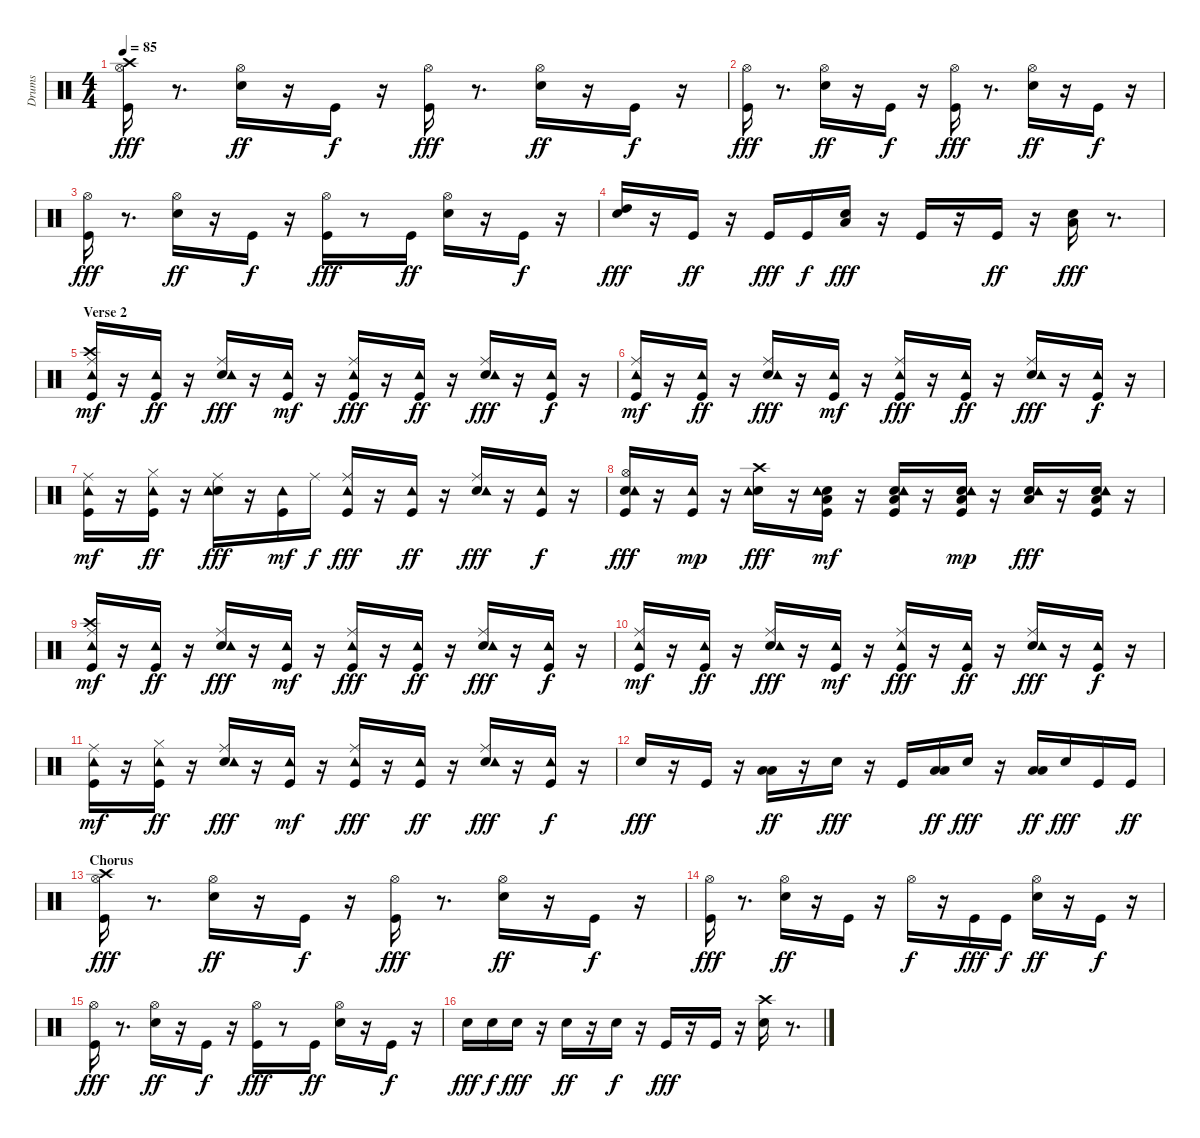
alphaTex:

\track ("Drums    " "Drums    ") {instrument percussion}
\staff {score}
\articulation defaults
\ts (4 4)
\tempo 85
\clef neutral
\ks c
("Kick (hit)" "Hi-Hat (open)" "Crash high (hit)").16{dy fff} r.8{d} ("Snare (hit) 2" "Hi-Hat (open)").16{dy ff} r.16 "Kick (hit)".16{dy f} r.16 ("Kick (hit)" "Hi-Hat (open)").16{dy fff} r.8{d} ("Snare (hit) 2" "Hi-Hat (open)").16{dy ff} r.16 "Kick (hit)".16{dy f} r.16 |
("Kick (hit)" "Hi-Hat (open)").16{dy fff} r.8{d} ("Snare (hit) 2" "Hi-Hat (open)").16{dy ff} r.16 "Kick (hit)".16{dy f} r.16 ("Kick (hit)" "Hi-Hat (open)").16{dy fff} r.8{d} ("Snare (hit) 2" "Hi-Hat (open)").16{dy ff} r.16 "Kick (hit)".16{dy f} r.16 |
("Kick (hit)" "Hi-Hat (open)").16{dy fff} r.8{d} ("Snare (hit) 2" "Hi-Hat (open)").16{dy ff} r.16 "Kick (hit)".16{dy f} r.16 ("Kick (hit)" "Hi-Hat (open)").16{dy fff} r.8 "Kick (hit)".16{dy ff} ("Snare (hit) 2" "Hi-Hat (open)").16 r.16 "Kick (hit)".16{dy f} r.16 |
("Snare (hit) 2" "High Tom (hit)").16{dy fff} r.16 "Kick (hit)".16{dy ff} r.16 "Kick (hit)".16{dy fff} "Kick (hit)".16{dy f} ("Snare (hit) 2" "Low Tom (hit)").16{dy fff} r.16 "Kick (hit)".16 r.16 "Kick (hit)".16{dy ff} r.16 ("Snare (hit) 2" "Low Floor Tom (hit)").16{dy fff} r.8{d} |
\section ("" "Verse 2")
("Kick (hit)" "Ride (middle)" "Crash high (hit)" "Tambourine (hit)").16{dy mf} r.16 ("Kick (hit)" "Tambourine (hit)").16{dy ff} r.16 ("Snare (hit) 2" "Ride (middle)" "Tambourine (hit)").16{dy fff} r.16 ("Kick (hit)" "Tambourine (hit)").16{dy mf} r.16 ("Kick (hit)" "Ride (middle)" "Tambourine (hit)").16{dy fff} r.16 ("Kick (hit)" "Tambourine (hit)").16{dy ff} r.16 ("Snare (hit) 2" "Ride (middle)" "Tambourine (hit)").16{dy fff} r.16 ("Kick (hit)" "Tambourine (hit)").16{dy f} r.16 |
("Kick (hit)" "Ride (middle)" "Tambourine (hit)").16{dy mf} r.16 ("Kick (hit)" "Tambourine (hit)").16{dy ff} r.16 ("Snare (hit) 2" "Ride (middle)" "Tambourine (hit)").16{dy fff} r.16 ("Kick (hit)" "Tambourine (hit)").16{dy mf} r.16 ("Kick (hit)" "Ride (middle)" "Tambourine (hit)").16{dy fff} r.16 ("Kick (hit)" "Tambourine (hit)").16{dy ff} r.16 ("Snare (hit) 2" "Ride (middle)" "Tambourine (hit)").16{dy fff} r.16 ("Kick (hit)" "Tambourine (hit)").16{dy f} r.16 |
("Kick (hit)" "Ride (middle)" "Tambourine (hit)").16{dy mf} r.16 ("Kick (hit)" "Hi-Hat (closed)" "Tambourine (hit)").16{dy ff} r.16 ("Snare (hit) 2" "Ride (middle)" "Tambourine (hit)").16{dy fff} r.16 ("Kick (hit)" "Tambourine (hit)").16{dy mf} "Ride (middle)".16{dy f} ("Kick (hit)" "Ride (middle)" "Tambourine (hit)").16{dy fff} r.16 ("Kick (hit)" "Tambourine (hit)").16{dy ff} r.16 ("Snare (hit) 2" "Ride (middle)" "Tambourine (hit)").16{dy fff} r.16 ("Kick (hit)" "Tambourine (hit)").16{dy f} r.16 |
("Kick (hit)" "Snare (hit) 2" "Hi-Hat (open)" "Tambourine (hit)").16{dy fff} r.16 ("Kick (hit)" "Tambourine (hit)").16{dy mp} r.16 ("Snare (hit) 2" "Crash high (hit)" "Tambourine (hit)").16{dy fff} r.16 ("Kick (hit)" "Snare (hit) 2" "Low Floor Tom (hit)" "Tambourine (hit)").16{dy mf} r.16 ("Kick (hit)" "Snare (hit) 2" "Low Floor Tom (hit)" "Tambourine (hit)").16 r.16 ("Kick (hit)" "Snare (hit) 2" "Low Floor Tom (hit)" "Tambourine (hit)").16{dy mp} r.16 ("Snare (hit) 2" "Low Floor Tom (hit)" "Tambourine (hit)").16{dy fff} r.16 ("Kick (hit)" "Snare (hit) 2" "Low Floor Tom (hit)" "Tambourine (hit)").16 r.16 |
("Kick (hit)" "Ride (middle)" "Crash high (hit)" "Tambourine (hit)").16{dy mf} r.16 ("Kick (hit)" "Tambourine (hit)").16{dy ff} r.16 ("Snare (hit) 2" "Ride (middle)" "Tambourine (hit)").16{dy fff} r.16 ("Kick (hit)" "Tambourine (hit)").16{dy mf} r.16 ("Kick (hit)" "Ride (middle)" "Tambourine (hit)").16{dy fff} r.16 ("Kick (hit)" "Tambourine (hit)").16{dy ff} r.16 ("Snare (hit) 2" "Ride (middle)" "Tambourine (hit)").16{dy fff} r.16 ("Kick (hit)" "Tambourine (hit)").16{dy f} r.16 |
("Kick (hit)" "Ride (middle)" "Tambourine (hit)").16{dy mf} r.16 ("Kick (hit)" "Tambourine (hit)").16{dy ff} r.16 ("Snare (hit) 2" "Ride (middle)" "Tambourine (hit)").16{dy fff} r.16 ("Kick (hit)" "Tambourine (hit)").16{dy mf} r.16 ("Kick (hit)" "Ride (middle)" "Tambourine (hit)").16{dy fff} r.16 ("Kick (hit)" "Tambourine (hit)").16{dy ff} r.16 ("Snare (hit) 2" "Ride (middle)" "Tambourine (hit)").16{dy fff} r.16 ("Kick (hit)" "Tambourine (hit)").16{dy f} r.16 |
("Kick (hit)" "Ride (middle)" "Tambourine (hit)").16{dy mf} r.16 ("Kick (hit)" "Hi-Hat (closed)" "Tambourine (hit)").16{dy ff} r.16 ("Snare (hit) 2" "Ride (middle)" "Tambourine (hit)").16{dy fff} r.16 ("Kick (hit)" "Tambourine (hit)").16{dy mf} r.16 ("Kick (hit)" "Ride (middle)" "Tambourine (hit)").16{dy fff} r.16 ("Kick (hit)" "Tambourine (hit)").16{dy ff} r.16 ("Snare (hit) 2" "Ride (middle)" "Tambourine (hit)").16{dy fff} r.16 ("Kick (hit)" "Tambourine (hit)").16{dy f} r.16 |
"Snare (hit) 2".16{dy fff} r.16 "Kick (hit)".16 r.16 ("Low Floor Tom (hit)" "Low Tom (hit)").16{dy ff} r.16 "Snare (hit) 2".16{dy fff} r.16 "Kick (hit)".16 ("Low Floor Tom (hit)" "Low Tom (hit)").16{dy ff} "Snare (hit) 2".16{dy fff} r.16 ("Low Floor Tom (hit)" "Low Tom (hit)").16{dy ff} "Snare (hit) 2".16{dy fff} "Kick (hit)".16 "Kick (hit)".16{dy ff} |
\section ("" "Chorus")
("Kick (hit)" "Hi-Hat (open)" "Crash high (hit)").16{dy fff} r.8{d} ("Snare (hit) 2" "Hi-Hat (open)").16{dy ff} r.16 "Kick (hit)".16{dy f} r.16 ("Kick (hit)" "Hi-Hat (open)").16{dy fff} r.8{d} ("Snare (hit) 2" "Hi-Hat (open)").16{dy ff} r.16 "Kick (hit)".16{dy f} r.16 |
("Kick (hit)" "Hi-Hat (open)").16{dy fff} r.8{d} ("Snare (hit) 2" "Hi-Hat (open)").16{dy ff} r.16 "Kick (hit)".16 r.16 "Hi-Hat (open)".16{dy f} r.16 "Kick (hit)".16{dy fff} "Kick (hit)".16{dy f} ("Snare (hit) 2" "Hi-Hat (open)").16{dy ff} r.16 "Kick (hit)".16{dy f} r.16 |
("Kick (hit)" "Hi-Hat (open)").16{dy fff} r.8{d} ("Snare (hit) 2" "Hi-Hat (open)").16{dy ff} r.16 "Kick (hit)".16{dy f} r.16 ("Kick (hit)" "Hi-Hat (open)").16{dy fff} r.8 "Kick (hit)".16{dy ff} ("Snare (hit) 2" "Hi-Hat (open)").16 r.16 "Kick (hit)".16{dy f} r.16 |
"Snare (hit) 2".16{dy fff} "Snare (hit) 2".16{dy f} "Snare (hit) 2".16{dy fff} r.16 "Snare (hit) 2".16{dy ff} r.16 "Snare (hit) 2".16{dy f} r.16 "Kick (hit)".16{dy fff} r.16 "Kick (hit)".16 r.16 ("Snare (hit) 2" "Crash high (hit)").16 r.8{d}
